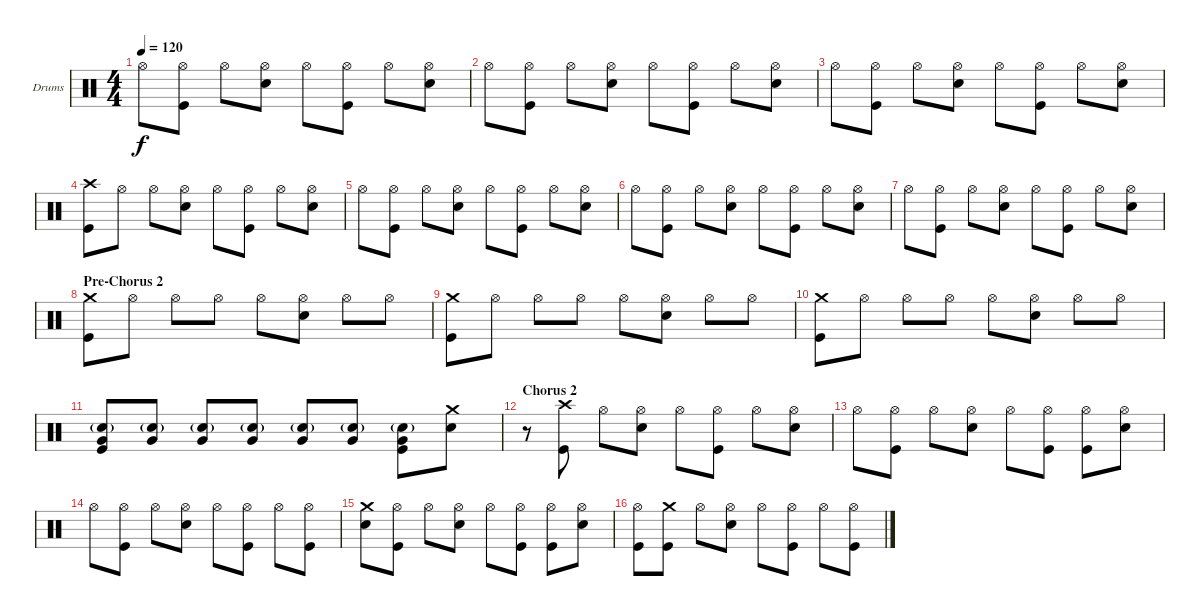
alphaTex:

\bracketExtendMode groupsimilarinstruments
\firstSystemTrackNameOrientation horizontal
\otherSystemsTrackNameOrientation horizontal
\track ("Drumkit" "Drums") {instrument percussion}
\staff {score}
\articulation defaults
\ts (4 4)
\tempo 120
\clef neutral
\ks c "Hi-Hat (open)".8{dy f}
("Hi-Hat (open)" "Kick (hit)").8 "Hi-Hat (open)".8 ("Hi-Hat (open)" "Snare (hit) 2").8 "Hi-Hat (open)".8 ("Hi-Hat (open)" "Kick (hit)").8 "Hi-Hat (open)".8 ("Hi-Hat (open)" "Snare (hit) 2").8 |
"Hi-Hat (open)".8 ("Hi-Hat (open)" "Kick (hit)").8 "Hi-Hat (open)".8 ("Hi-Hat (open)" "Snare (hit) 2").8 "Hi-Hat (open)".8 ("Hi-Hat (open)" "Kick (hit)").8 "Hi-Hat (open)".8 ("Hi-Hat (open)" "Snare (hit) 2").8 |
"Hi-Hat (open)".8 ("Hi-Hat (open)" "Kick (hit)").8 "Hi-Hat (open)".8 ("Hi-Hat (open)" "Snare (hit) 2").8 "Hi-Hat (open)".8 ("Hi-Hat (open)" "Kick (hit)").8 "Hi-Hat (open)".8 ("Hi-Hat (open)" "Snare (hit) 2").8 |
("Crash high (hit)" "Kick (hit)").8 "Hi-Hat (open)".8 "Hi-Hat (open)".8 ("Hi-Hat (open)" "Snare (hit) 2").8 "Hi-Hat (open)".8 ("Hi-Hat (open)" "Kick (hit)").8 "Hi-Hat (open)".8 ("Hi-Hat (open)" "Snare (hit) 2").8 |
"Hi-Hat (open)".8 ("Hi-Hat (open)" "Kick (hit)").8 "Hi-Hat (open)".8 ("Hi-Hat (open)" "Snare (hit) 2").8 "Hi-Hat (open)".8 ("Hi-Hat (open)" "Kick (hit)").8 "Hi-Hat (open)".8 ("Hi-Hat (open)" "Snare (hit) 2").8 |
"Hi-Hat (open)".8 ("Hi-Hat (open)" "Kick (hit)").8 "Hi-Hat (open)".8 ("Hi-Hat (open)" "Snare (hit) 2").8 "Hi-Hat (open)".8 ("Hi-Hat (open)" "Kick (hit)").8 "Hi-Hat (open)".8 ("Hi-Hat (open)" "Snare (hit) 2").8 |
"Hi-Hat (open)".8 ("Hi-Hat (open)" "Kick (hit)").8 "Hi-Hat (open)".8 ("Hi-Hat (open)" "Snare (hit) 2").8 "Hi-Hat (open)".8 ("Hi-Hat (open)" "Kick (hit)").8 "Hi-Hat (open)".8 ("Hi-Hat (open)" "Snare (hit) 2").8 |
\section ("" "Pre-Chorus 2")
("Crash medium (hit)" "Kick (hit)").8 "Hi-Hat (open)".8 "Hi-Hat (open)".8 "Hi-Hat (open)".8 "Hi-Hat (open)".8 ("Hi-Hat (open)" "Snare (hit) 2").8 "Hi-Hat (open)".8 "Hi-Hat (open)".8 |
("Crash medium (hit)" "Kick (hit)").8 "Hi-Hat (open)".8 "Hi-Hat (open)".8 "Hi-Hat (open)".8 "Hi-Hat (open)".8 ("Hi-Hat (open)" "Snare (hit) 2").8 "Hi-Hat (open)".8 "Hi-Hat (open)".8 |
("Crash medium (hit)" "Kick (hit)").8 "Hi-Hat (open)".8 "Hi-Hat (open)".8 "Hi-Hat (open)".8 "Hi-Hat (open)".8 ("Hi-Hat (open)" "Snare (hit) 2").8 "Hi-Hat (open)".8 "Hi-Hat (open)".8 |
("Snare (hit) 2"{g} "Very Low Tom (hit)" "Kick (hit)").8 ("Snare (hit) 2"{g} "Very Low Tom (hit)").8 ("Snare (hit) 2"{g} "Very Low Tom (hit)").8 ("Snare (hit) 2"{g} "Very Low Tom (hit)").8 ("Snare (hit) 2"{g} "Very Low Tom (hit)").8 ("Snare (hit) 2"{g} "Very Low Tom (hit)").8 ("Snare (hit) 2"{g} "Very Low Tom (hit)" "Kick (hit)").8 ("Crash medium (hit)" "Snare (hit) 2").8 |
\section ("" "Chorus 2 ")
r.8 ("Crash high (hit)" "Kick (hit)").8 "Hi-Hat (open)".8 ("Hi-Hat (open)" "Snare (hit) 2").8 "Hi-Hat (open)".8 ("Hi-Hat (open)" "Kick (hit)").8 "Hi-Hat (open)".8 ("Hi-Hat (open)" "Snare (hit) 2").8 |
"Hi-Hat (open)".8 ("Hi-Hat (open)" "Kick (hit)").8 "Hi-Hat (open)".8 ("Hi-Hat (open)" "Snare (hit) 2").8 "Hi-Hat (open)".8 ("Hi-Hat (open)" "Kick (hit)").8 ("Hi-Hat (open)" "Kick (hit)").8 ("Hi-Hat (open)" "Snare (hit) 2").8 |
"Hi-Hat (open)".8 ("Hi-Hat (open)" "Kick (hit)").8 "Hi-Hat (open)".8 ("Hi-Hat (open)" "Snare (hit) 2").8 "Hi-Hat (open)".8 ("Hi-Hat (open)" "Kick (hit)").8 "Hi-Hat (open)".8 ("Hi-Hat (open)" "Kick (hit)").8 |
("Crash medium (hit)" "Snare (hit) 2").8 ("Hi-Hat (open)" "Kick (hit)").8 "Hi-Hat (open)".8 ("Hi-Hat (open)" "Snare (hit) 2").8 "Hi-Hat (open)".8 ("Hi-Hat (open)" "Kick (hit)").8 ("Hi-Hat (open)" "Kick (hit)").8 ("Hi-Hat (open)" "Snare (hit) 2").8 |
("Hi-Hat (open)" "Kick (hit)").8 ("Crash medium (hit)" "Kick (hit)").8 "Hi-Hat (open)".8 ("Hi-Hat (open)" "Snare (hit) 2").8 "Hi-Hat (open)".8 ("Hi-Hat (open)" "Kick (hit)").8 "Hi-Hat (open)".8 ("Hi-Hat (open)" "Kick (hit)").8
